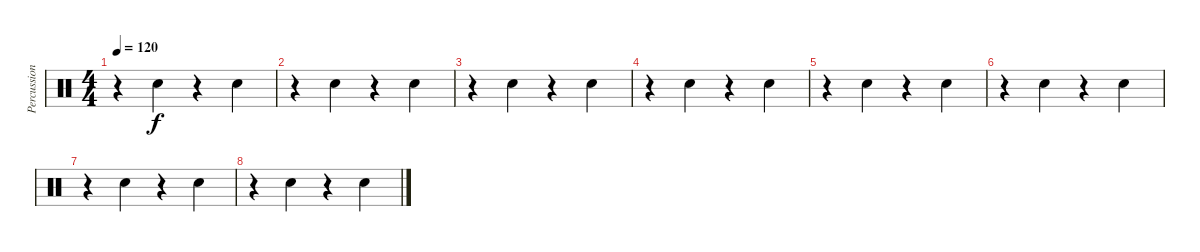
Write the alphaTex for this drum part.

\track ("Percussion" "Percussion") {instrument percussion}
\staff {score}
\articulation defaults
\ts (4 4)
\tempo 120
\clef neutral
\ks c
r.4{dy f} "Snare (hit) 2".4 r.4 "Snare (hit) 2".4 |
r.4 "Snare (hit) 2".4 r.4 "Snare (hit) 2".4 |
r.4 "Snare (hit) 2".4 r.4 "Snare (hit) 2".4 |
r.4 "Snare (hit) 2".4 r.4 "Snare (hit) 2".4 |
r.4 "Snare (hit) 2".4 r.4 "Snare (hit) 2".4 |
r.4 "Snare (hit) 2".4 r.4 "Snare (hit) 2".4 |
r.4 "Snare (hit) 2".4 r.4 "Snare (hit) 2".4 |
r.4 "Snare (hit) 2".4 r.4 "Snare (hit) 2".4
